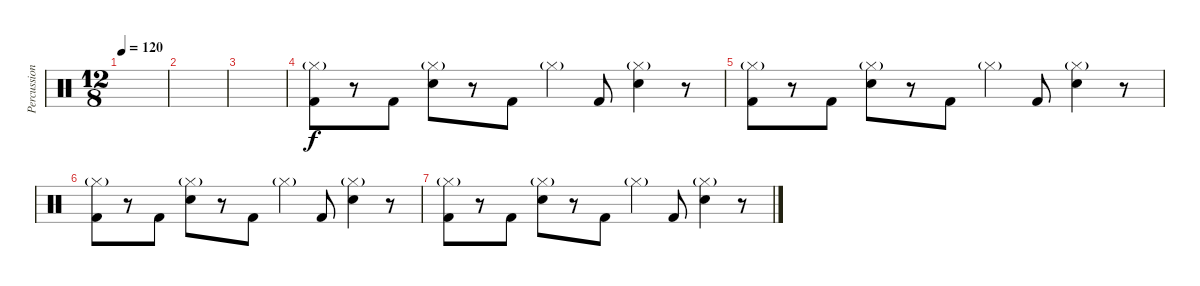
\track ("Percussion" "Percussion") {instrument percussion}
\staff {score}
\articulation defaults
\ts (12 8)
\tempo 120
\clef neutral
\ks c
|
|
|
("Hi-Hat (closed)"{g} "Kick (hit) 2").8 r.8 "Kick (hit) 2".8 ("Hi-Hat (closed)"{g} "Snare (hit) 2").8 r.8 "Kick (hit) 2".8 "Hi-Hat (closed)"{g}.4 "Kick (hit) 2".8 ("Hi-Hat (closed)"{g} "Snare (hit) 2").4 r.8 |
("Hi-Hat (closed)"{g} "Kick (hit) 2").8 r.8 "Kick (hit) 2".8 ("Hi-Hat (closed)"{g} "Snare (hit) 2").8 r.8 "Kick (hit) 2".8 "Hi-Hat (closed)"{g}.4 "Kick (hit) 2".8 ("Hi-Hat (closed)"{g} "Snare (hit) 2").4 r.8 |
("Hi-Hat (closed)"{g} "Kick (hit) 2").8 r.8 "Kick (hit) 2".8 ("Hi-Hat (closed)"{g} "Snare (hit) 2").8 r.8 "Kick (hit) 2".8 "Hi-Hat (closed)"{g}.4 "Kick (hit) 2".8 ("Hi-Hat (closed)"{g} "Snare (hit) 2").4 r.8 |
("Hi-Hat (closed)"{g} "Kick (hit) 2").8 r.8 "Kick (hit) 2".8 ("Hi-Hat (closed)"{g} "Snare (hit) 2").8 r.8 "Kick (hit) 2".8 "Hi-Hat (closed)"{g}.4 "Kick (hit) 2".8 ("Hi-Hat (closed)"{g} "Snare (hit) 2").4 r.8
